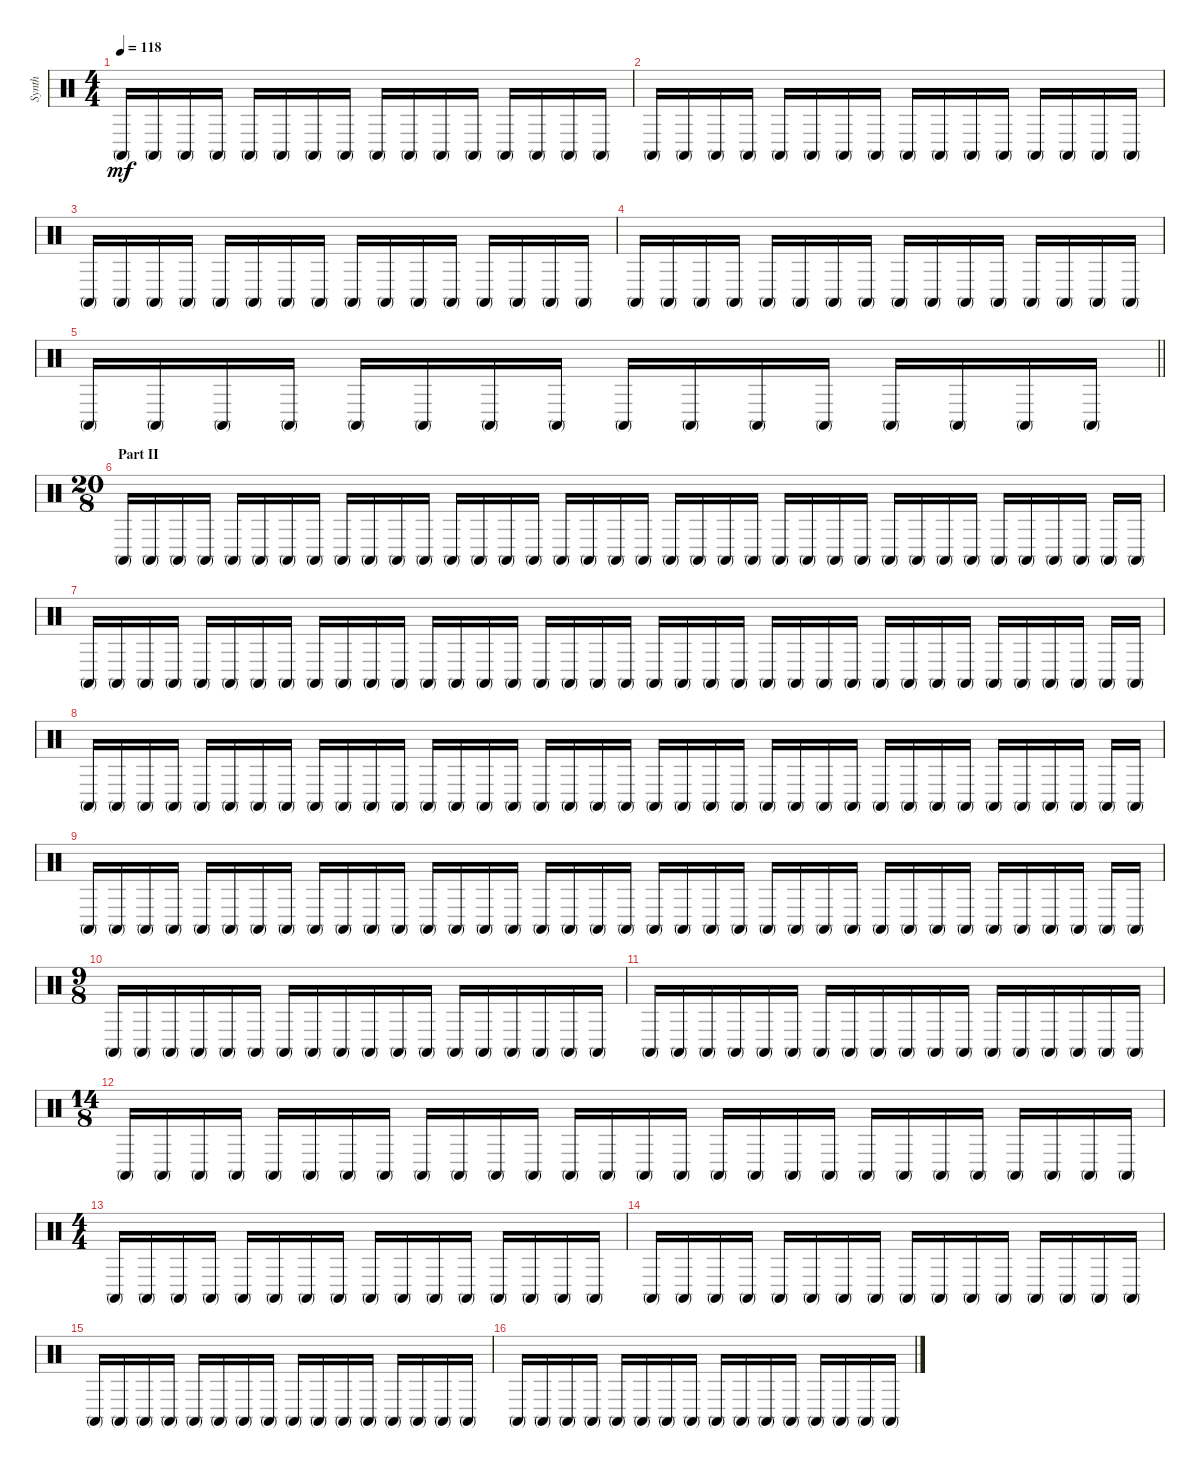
\track ("Synth" "Synth") {instrument percussion}
\staff {score}
\articulation defaults
\ts (4 4)
\tempo 118
\clef neutral
\ks c "Conga high (mute)".16{dy mf} "Conga high (mute)".16 "Conga high (mute)".16 "Conga high (mute)".16 "Conga high (mute)".16 "Conga high (mute)".16 "Conga high (mute)".16 "Conga high (mute)".16 "Conga high (mute)".16 "Conga high (mute)".16 "Conga high (mute)".16 "Conga high (mute)".16 "Conga high (mute)".16 "Conga high (mute)".16 "Conga high (mute)".16 "Conga high (mute)".16
|
"Conga high (mute)".16 "Conga high (mute)".16 "Conga high (mute)".16 "Conga high (mute)".16 "Conga high (mute)".16 "Conga high (mute)".16 "Conga high (mute)".16 "Conga high (mute)".16 "Conga high (mute)".16 "Conga high (mute)".16 "Conga high (mute)".16 "Conga high (mute)".16 "Conga high (mute)".16 "Conga high (mute)".16 "Conga high (mute)".16 "Conga high (mute)".16 |
"Conga high (mute)".16 "Conga high (mute)".16 "Conga high (mute)".16 "Conga high (mute)".16 "Conga high (mute)".16 "Conga high (mute)".16 "Conga high (mute)".16 "Conga high (mute)".16 "Conga high (mute)".16 "Conga high (mute)".16 "Conga high (mute)".16 "Conga high (mute)".16 "Conga high (mute)".16 "Conga high (mute)".16 "Conga high (mute)".16 "Conga high (mute)".16 |
"Conga high (mute)".16 "Conga high (mute)".16 "Conga high (mute)".16 "Conga high (mute)".16 "Conga high (mute)".16 "Conga high (mute)".16 "Conga high (mute)".16 "Conga high (mute)".16 "Conga high (mute)".16 "Conga high (mute)".16 "Conga high (mute)".16 "Conga high (mute)".16 "Conga high (mute)".16 "Conga high (mute)".16 "Conga high (mute)".16 "Conga high (mute)".16 |
\barLineRight lightlight "Conga high (mute)".16 "Conga high (mute)".16 "Conga high (mute)".16 "Conga high (mute)".16 "Conga high (mute)".16 "Conga high (mute)".16 "Conga high (mute)".16 "Conga high (mute)".16 "Conga high (mute)".16 "Conga high (mute)".16 "Conga high (mute)".16 "Conga high (mute)".16 "Conga high (mute)".16 "Conga high (mute)".16 "Conga high (mute)".16 "Conga high (mute)".16
|
\ts (20 8)
\section ("" "Part II")
"Conga high (mute)".16 "Conga high (mute)".16 "Conga high (mute)".16 "Conga high (mute)".16 "Conga high (mute)".16 "Conga high (mute)".16 "Conga high (mute)".16 "Conga high (mute)".16 "Conga high (mute)".16 "Conga high (mute)".16 "Conga high (mute)".16 "Conga high (mute)".16 "Conga high (mute)".16 "Conga high (mute)".16 "Conga high (mute)".16 "Conga high (mute)".16 "Conga high (mute)".16 "Conga high (mute)".16 "Conga high (mute)".16 "Conga high (mute)".16 "Conga high (mute)".16 "Conga high (mute)".16 "Conga high (mute)".16 "Conga high (mute)".16 "Conga high (mute)".16 "Conga high (mute)".16 "Conga high (mute)".16 "Conga high (mute)".16 "Conga high (mute)".16 "Conga high (mute)".16 "Conga high (mute)".16 "Conga high (mute)".16 "Conga high (mute)".16 "Conga high (mute)".16 "Conga high (mute)".16 "Conga high (mute)".16 "Conga high (mute)".16 "Conga high (mute)".16 |
"Conga high (mute)".16 "Conga high (mute)".16 "Conga high (mute)".16 "Conga high (mute)".16 "Conga high (mute)".16 "Conga high (mute)".16 "Conga high (mute)".16 "Conga high (mute)".16 "Conga high (mute)".16 "Conga high (mute)".16 "Conga high (mute)".16 "Conga high (mute)".16 "Conga high (mute)".16 "Conga high (mute)".16 "Conga high (mute)".16 "Conga high (mute)".16 "Conga high (mute)".16 "Conga high (mute)".16 "Conga high (mute)".16 "Conga high (mute)".16 "Conga high (mute)".16 "Conga high (mute)".16 "Conga high (mute)".16 "Conga high (mute)".16 "Conga high (mute)".16 "Conga high (mute)".16 "Conga high (mute)".16 "Conga high (mute)".16 "Conga high (mute)".16 "Conga high (mute)".16 "Conga high (mute)".16 "Conga high (mute)".16 "Conga high (mute)".16 "Conga high (mute)".16 "Conga high (mute)".16 "Conga high (mute)".16 "Conga high (mute)".16 "Conga high (mute)".16 |
"Conga high (mute)".16 "Conga high (mute)".16 "Conga high (mute)".16 "Conga high (mute)".16 "Conga high (mute)".16 "Conga high (mute)".16 "Conga high (mute)".16 "Conga high (mute)".16 "Conga high (mute)".16 "Conga high (mute)".16 "Conga high (mute)".16 "Conga high (mute)".16 "Conga high (mute)".16 "Conga high (mute)".16 "Conga high (mute)".16 "Conga high (mute)".16 "Conga high (mute)".16 "Conga high (mute)".16 "Conga high (mute)".16 "Conga high (mute)".16 "Conga high (mute)".16 "Conga high (mute)".16 "Conga high (mute)".16 "Conga high (mute)".16 "Conga high (mute)".16 "Conga high (mute)".16 "Conga high (mute)".16 "Conga high (mute)".16 "Conga high (mute)".16 "Conga high (mute)".16 "Conga high (mute)".16 "Conga high (mute)".16 "Conga high (mute)".16 "Conga high (mute)".16 "Conga high (mute)".16 "Conga high (mute)".16 "Conga high (mute)".16 "Conga high (mute)".16 |
"Conga high (mute)".16 "Conga high (mute)".16 "Conga high (mute)".16 "Conga high (mute)".16 "Conga high (mute)".16 "Conga high (mute)".16 "Conga high (mute)".16 "Conga high (mute)".16 "Conga high (mute)".16 "Conga high (mute)".16 "Conga high (mute)".16 "Conga high (mute)".16 "Conga high (mute)".16 "Conga high (mute)".16 "Conga high (mute)".16 "Conga high (mute)".16 "Conga high (mute)".16 "Conga high (mute)".16 "Conga high (mute)".16 "Conga high (mute)".16 "Conga high (mute)".16 "Conga high (mute)".16 "Conga high (mute)".16 "Conga high (mute)".16 "Conga high (mute)".16 "Conga high (mute)".16 "Conga high (mute)".16 "Conga high (mute)".16 "Conga high (mute)".16 "Conga high (mute)".16 "Conga high (mute)".16 "Conga high (mute)".16 "Conga high (mute)".16 "Conga high (mute)".16 "Conga high (mute)".16 "Conga high (mute)".16 "Conga high (mute)".16 "Conga high (mute)".16 |
\ts (9 8)
"Conga high (mute)".16 "Conga high (mute)".16 "Conga high (mute)".16 "Conga high (mute)".16 "Conga high (mute)".16 "Conga high (mute)".16 "Conga high (mute)".16 "Conga high (mute)".16 "Conga high (mute)".16 "Conga high (mute)".16 "Conga high (mute)".16 "Conga high (mute)".16 "Conga high (mute)".16 "Conga high (mute)".16 "Conga high (mute)".16 "Conga high (mute)".16 "Conga high (mute)".16 "Conga high (mute)".16 |
"Conga high (mute)".16 "Conga high (mute)".16 "Conga high (mute)".16 "Conga high (mute)".16 "Conga high (mute)".16 "Conga high (mute)".16 "Conga high (mute)".16 "Conga high (mute)".16 "Conga high (mute)".16 "Conga high (mute)".16 "Conga high (mute)".16 "Conga high (mute)".16 "Conga high (mute)".16 "Conga high (mute)".16 "Conga high (mute)".16 "Conga high (mute)".16 "Conga high (mute)".16 "Conga high (mute)".16 |
\ts (14 8)
"Conga high (mute)".16 "Conga high (mute)".16 "Conga high (mute)".16 "Conga high (mute)".16 "Conga high (mute)".16 "Conga high (mute)".16 "Conga high (mute)".16 "Conga high (mute)".16 "Conga high (mute)".16 "Conga high (mute)".16 "Conga high (mute)".16 "Conga high (mute)".16 "Conga high (mute)".16 "Conga high (mute)".16 "Conga high (mute)".16 "Conga high (mute)".16 "Conga high (mute)".16 "Conga high (mute)".16 "Conga high (mute)".16 "Conga high (mute)".16 "Conga high (mute)".16 "Conga high (mute)".16 "Conga high (mute)".16 "Conga high (mute)".16 "Conga high (mute)".16 "Conga high (mute)".16 "Conga high (mute)".16 "Conga high (mute)".16 |
\ts (4 4)
"Conga high (mute)".16 "Conga high (mute)".16 "Conga high (mute)".16 "Conga high (mute)".16 "Conga high (mute)".16 "Conga high (mute)".16 "Conga high (mute)".16 "Conga high (mute)".16 "Conga high (mute)".16 "Conga high (mute)".16 "Conga high (mute)".16 "Conga high (mute)".16 "Conga high (mute)".16 "Conga high (mute)".16 "Conga high (mute)".16 "Conga high (mute)".16 |
"Conga high (mute)".16 "Conga high (mute)".16 "Conga high (mute)".16 "Conga high (mute)".16 "Conga high (mute)".16 "Conga high (mute)".16 "Conga high (mute)".16 "Conga high (mute)".16 "Conga high (mute)".16 "Conga high (mute)".16 "Conga high (mute)".16 "Conga high (mute)".16 "Conga high (mute)".16 "Conga high (mute)".16 "Conga high (mute)".16 "Conga high (mute)".16 |
"Conga high (mute)".16 "Conga high (mute)".16 "Conga high (mute)".16 "Conga high (mute)".16 "Conga high (mute)".16 "Conga high (mute)".16 "Conga high (mute)".16 "Conga high (mute)".16 "Conga high (mute)".16 "Conga high (mute)".16 "Conga high (mute)".16 "Conga high (mute)".16 "Conga high (mute)".16 "Conga high (mute)".16 "Conga high (mute)".16 "Conga high (mute)".16 |
"Conga high (mute)".16 "Conga high (mute)".16 "Conga high (mute)".16 "Conga high (mute)".16 "Conga high (mute)".16 "Conga high (mute)".16 "Conga high (mute)".16 "Conga high (mute)".16 "Conga high (mute)".16 "Conga high (mute)".16 "Conga high (mute)".16 "Conga high (mute)".16 "Conga high (mute)".16 "Conga high (mute)".16 "Conga high (mute)".16 "Conga high (mute)".16
